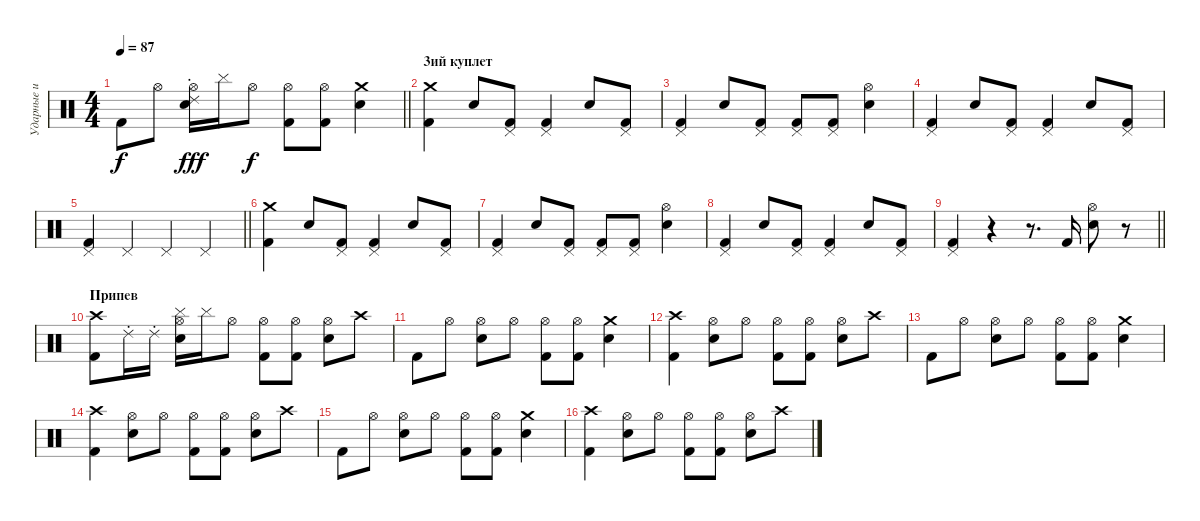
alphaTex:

\track ("Ударные и Скрэтч" "Ударные и ") {instrument percussion}
\staff {score}
\articulation defaults
\ts (4 4)
\tempo 87
\clef neutral
\barLineRight lightlight
\ks c "Kick (hit) 2".8{dy f} "Hi-Hat (open)".8
("Electric Snare (hit)" "Hi-Hat (open)" "Ride (choke) 2").16{dy fff} "Cymbal (hit)".16 "Hi-Hat (open)".8{dy f} ("Kick (hit) 2" "Hi-Hat (open)").8 ("Kick (hit) 2" "Hi-Hat (open)").8 ("Electric Snare (hit)" "Crash medium (hit)").4 |
\section ("" "3ий куплет")
("Kick (hit) 2" "Crash medium (hit)").4 "Electric Snare (hit)".8 ("Kick (hit) 2" "Pedal Hi-Hat (hit)").8 ("Kick (hit) 2" "Pedal Hi-Hat (hit)").4 "Electric Snare (hit)".8 ("Kick (hit) 2" "Pedal Hi-Hat (hit)").8 |
("Kick (hit) 2" "Pedal Hi-Hat (hit)").4 "Electric Snare (hit)".8 ("Kick (hit) 2" "Pedal Hi-Hat (hit)").8 ("Kick (hit) 2" "Pedal Hi-Hat (hit)").8 ("Kick (hit) 2" "Pedal Hi-Hat (hit)").8 ("Electric Snare (hit)" "Hi-Hat (open)").4 |
("Kick (hit) 2" "Pedal Hi-Hat (hit)").4 "Electric Snare (hit)".8 ("Kick (hit) 2" "Pedal Hi-Hat (hit)").8 ("Kick (hit) 2" "Pedal Hi-Hat (hit)").4 "Electric Snare (hit)".8 ("Kick (hit) 2" "Pedal Hi-Hat (hit)").8 |
\barLineRight lightlight
("Kick (hit) 2" "Pedal Hi-Hat (hit)").4 "Pedal Hi-Hat (hit)".4 "Pedal Hi-Hat (hit)".4 "Pedal Hi-Hat (hit)".4 |
("Kick (hit) 2" "Crash medium (hit)").4 "Electric Snare (hit)".8 ("Kick (hit) 2" "Pedal Hi-Hat (hit)").8 ("Kick (hit) 2" "Pedal Hi-Hat (hit)").4 "Electric Snare (hit)".8 ("Kick (hit) 2" "Pedal Hi-Hat (hit)").8 |
("Kick (hit) 2" "Pedal Hi-Hat (hit)").4 "Electric Snare (hit)".8 ("Kick (hit) 2" "Pedal Hi-Hat (hit)").8 ("Kick (hit) 2" "Pedal Hi-Hat (hit)").8 ("Kick (hit) 2" "Pedal Hi-Hat (hit)").8 ("Electric Snare (hit)" "Hi-Hat (open)").4 |
("Kick (hit) 2" "Pedal Hi-Hat (hit)").4 "Electric Snare (hit)".8 ("Kick (hit) 2" "Pedal Hi-Hat (hit)").8 ("Kick (hit) 2" "Pedal Hi-Hat (hit)").4 "Electric Snare (hit)".8 ("Kick (hit) 2" "Pedal Hi-Hat (hit)").8 |
\barLineRight lightlight
("Kick (hit) 2" "Pedal Hi-Hat (hit)").4 r.4 r.8{d} "Kick (hit) 2".16 ("Electric Snare (hit)" "Hi-Hat (open)").8 r.8 |
\section ("" "Припев")
("Kick (hit) 2" "Crash high (hit)").8 "Ride (choke) 2".16 "Ride (choke) 2".16 ("Electric Snare (hit)" "Hi-Hat (open)" "Cymbal (hit)").16 "Cymbal (hit)".16 "Hi-Hat (open)".8 ("Kick (hit) 2" "Hi-Hat (open)").8 ("Kick (hit) 2" "Hi-Hat (open)").8 ("Electric Snare (hit)" "Hi-Hat (open)").8 "Crash high (hit)".8 |
"Kick (hit) 2".8 "Hi-Hat (open)".8 ("Electric Snare (hit)" "Hi-Hat (open)").8 "Hi-Hat (open)".8 ("Kick (hit) 2" "Hi-Hat (open)").8 ("Kick (hit) 2" "Hi-Hat (open)").8 ("Electric Snare (hit)" "Crash medium (hit)").4 |
("Kick (hit) 2" "Crash high (hit)").4 ("Electric Snare (hit)" "Hi-Hat (open)").8 "Hi-Hat (open)".8 ("Kick (hit) 2" "Hi-Hat (open)").8 ("Kick (hit) 2" "Hi-Hat (open)").8 ("Electric Snare (hit)" "Hi-Hat (open)").8 "Crash high (hit)".8 |
"Kick (hit) 2".8 "Hi-Hat (open)".8 ("Electric Snare (hit)" "Hi-Hat (open)").8 "Hi-Hat (open)".8 ("Kick (hit) 2" "Hi-Hat (open)").8 ("Kick (hit) 2" "Hi-Hat (open)").8 ("Electric Snare (hit)" "Crash medium (hit)").4 |
("Kick (hit) 2" "Crash high (hit)").4 ("Electric Snare (hit)" "Hi-Hat (open)").8 "Hi-Hat (open)".8 ("Kick (hit) 2" "Hi-Hat (open)").8 ("Kick (hit) 2" "Hi-Hat (open)").8 ("Electric Snare (hit)" "Hi-Hat (open)").8 "Crash high (hit)".8 |
"Kick (hit) 2".8 "Hi-Hat (open)".8 ("Electric Snare (hit)" "Hi-Hat (open)").8 "Hi-Hat (open)".8 ("Kick (hit) 2" "Hi-Hat (open)").8 ("Kick (hit) 2" "Hi-Hat (open)").8 ("Electric Snare (hit)" "Crash medium (hit)").4 |
("Kick (hit) 2" "Crash high (hit)").4 ("Electric Snare (hit)" "Hi-Hat (open)").8 "Hi-Hat (open)".8 ("Kick (hit) 2" "Hi-Hat (open)").8 ("Kick (hit) 2" "Hi-Hat (open)").8 ("Electric Snare (hit)" "Hi-Hat (open)").8 "Crash high (hit)".8
